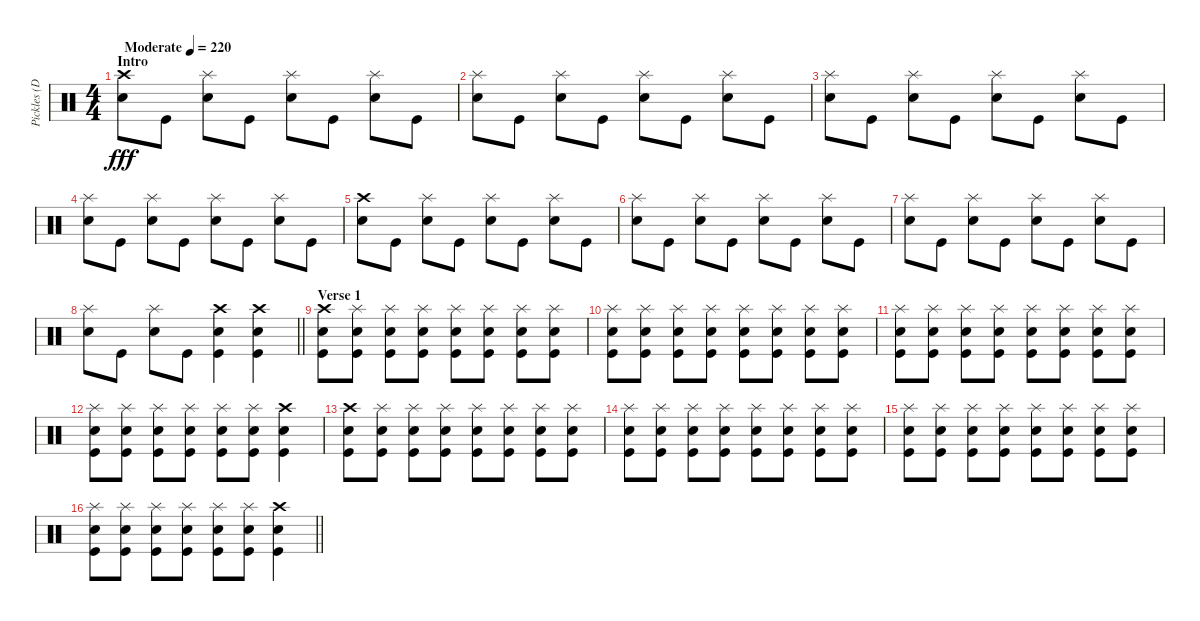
\track ("Pickles (Drums)" "Pickles (D") {instrument percussion}
\staff {score}
\articulation defaults
\ts (4 4)
\section ("" "Intro")
\tempo (220 "Moderate")
\clef neutral
\ks c
("Crash high (hit)" "Electric Snare (hit)").8{dy fff} "Kick (hit)".8 ("Splash (hit)" "Electric Snare (hit)").8 "Kick (hit)".8 ("Splash (hit)" "Electric Snare (hit)").8 "Kick (hit)".8 ("Splash (hit)" "Electric Snare (hit)").8 "Kick (hit)".8 |
("Splash (hit)" "Electric Snare (hit)").8 "Kick (hit)".8 ("Splash (hit)" "Electric Snare (hit)").8 "Kick (hit)".8 ("Splash (hit)" "Electric Snare (hit)").8 "Kick (hit)".8 ("Splash (hit)" "Electric Snare (hit)").8 "Kick (hit)".8 |
("Splash (hit)" "Electric Snare (hit)").8 "Kick (hit)".8 ("Splash (hit)" "Electric Snare (hit)").8 "Kick (hit)".8 ("Splash (hit)" "Electric Snare (hit)").8 "Kick (hit)".8 ("Splash (hit)" "Electric Snare (hit)").8 "Kick (hit)".8 |
("Splash (hit)" "Electric Snare (hit)").8 "Kick (hit)".8 ("Splash (hit)" "Electric Snare (hit)").8 "Kick (hit)".8 ("Splash (hit)" "Electric Snare (hit)").8 "Kick (hit)".8 ("Splash (hit)" "Electric Snare (hit)").8 "Kick (hit)".8 |
("Crash high (hit)" "Electric Snare (hit)").8 "Kick (hit)".8 ("Splash (hit)" "Electric Snare (hit)").8 "Kick (hit)".8 ("Splash (hit)" "Electric Snare (hit)").8 "Kick (hit)".8 ("Splash (hit)" "Electric Snare (hit)").8 "Kick (hit)".8 |
("Splash (hit)" "Electric Snare (hit)").8 "Kick (hit)".8 ("Splash (hit)" "Electric Snare (hit)").8 "Kick (hit)".8 ("Splash (hit)" "Electric Snare (hit)").8 "Kick (hit)".8 ("Splash (hit)" "Electric Snare (hit)").8 "Kick (hit)".8 |
("Splash (hit)" "Electric Snare (hit)").8 "Kick (hit)".8 ("Splash (hit)" "Electric Snare (hit)").8 "Kick (hit)".8 ("Splash (hit)" "Electric Snare (hit)").8 "Kick (hit)".8 ("Splash (hit)" "Electric Snare (hit)").8 "Kick (hit)".8 |
\barLineRight lightlight
("Splash (hit)" "Electric Snare (hit)").8 "Kick (hit)".8 ("Splash (hit)" "Electric Snare (hit)").8 "Kick (hit)".8 ("Crash high (hit)" "Electric Snare (hit)" "Kick (hit)").4 ("Crash high (hit)" "Electric Snare (hit)" "Kick (hit)").4 |
\section ("" "Verse 1")
("Crash high (hit)" "Electric Snare (hit)" "Kick (hit)").8 ("Splash (hit)" "Electric Snare (hit)" "Kick (hit)").8 ("Splash (hit)" "Electric Snare (hit)" "Kick (hit)").8 ("Splash (hit)" "Electric Snare (hit)" "Kick (hit)").8 ("Splash (hit)" "Electric Snare (hit)" "Kick (hit)").8 ("Splash (hit)" "Electric Snare (hit)" "Kick (hit)").8 ("Splash (hit)" "Electric Snare (hit)" "Kick (hit)").8 ("Splash (hit)" "Electric Snare (hit)" "Kick (hit)").8 |
("Splash (hit)" "Electric Snare (hit)" "Kick (hit)").8 ("Splash (hit)" "Electric Snare (hit)" "Kick (hit)").8 ("Splash (hit)" "Electric Snare (hit)" "Kick (hit)").8 ("Splash (hit)" "Electric Snare (hit)" "Kick (hit)").8 ("Splash (hit)" "Electric Snare (hit)" "Kick (hit)").8 ("Splash (hit)" "Electric Snare (hit)" "Kick (hit)").8 ("Splash (hit)" "Electric Snare (hit)" "Kick (hit)").8 ("Splash (hit)" "Electric Snare (hit)" "Kick (hit)").8 |
("Splash (hit)" "Electric Snare (hit)" "Kick (hit)").8 ("Splash (hit)" "Electric Snare (hit)" "Kick (hit)").8 ("Splash (hit)" "Electric Snare (hit)" "Kick (hit)").8 ("Splash (hit)" "Electric Snare (hit)" "Kick (hit)").8 ("Splash (hit)" "Electric Snare (hit)" "Kick (hit)").8 ("Splash (hit)" "Electric Snare (hit)" "Kick (hit)").8 ("Splash (hit)" "Electric Snare (hit)" "Kick (hit)").8 ("Splash (hit)" "Electric Snare (hit)" "Kick (hit)").8 |
("Splash (hit)" "Electric Snare (hit)" "Kick (hit)").8 ("Splash (hit)" "Electric Snare (hit)" "Kick (hit)").8 ("Splash (hit)" "Electric Snare (hit)" "Kick (hit)").8 ("Splash (hit)" "Electric Snare (hit)" "Kick (hit)").8 ("Splash (hit)" "Electric Snare (hit)" "Kick (hit)").8 ("Splash (hit)" "Electric Snare (hit)" "Kick (hit)").8 ("Crash high (hit)" "Electric Snare (hit)" "Kick (hit)").4 |
("Crash high (hit)" "Electric Snare (hit)" "Kick (hit)").8 ("Splash (hit)" "Electric Snare (hit)" "Kick (hit)").8 ("Splash (hit)" "Electric Snare (hit)" "Kick (hit)").8 ("Splash (hit)" "Electric Snare (hit)" "Kick (hit)").8 ("Splash (hit)" "Electric Snare (hit)" "Kick (hit)").8 ("Splash (hit)" "Electric Snare (hit)" "Kick (hit)").8 ("Splash (hit)" "Electric Snare (hit)" "Kick (hit)").8 ("Splash (hit)" "Electric Snare (hit)" "Kick (hit)").8 |
("Splash (hit)" "Electric Snare (hit)" "Kick (hit)").8 ("Splash (hit)" "Electric Snare (hit)" "Kick (hit)").8 ("Splash (hit)" "Electric Snare (hit)" "Kick (hit)").8 ("Splash (hit)" "Electric Snare (hit)" "Kick (hit)").8 ("Splash (hit)" "Electric Snare (hit)" "Kick (hit)").8 ("Splash (hit)" "Electric Snare (hit)" "Kick (hit)").8 ("Splash (hit)" "Electric Snare (hit)" "Kick (hit)").8 ("Splash (hit)" "Electric Snare (hit)" "Kick (hit)").8 |
("Splash (hit)" "Electric Snare (hit)" "Kick (hit)").8 ("Splash (hit)" "Electric Snare (hit)" "Kick (hit)").8 ("Splash (hit)" "Electric Snare (hit)" "Kick (hit)").8 ("Splash (hit)" "Electric Snare (hit)" "Kick (hit)").8 ("Splash (hit)" "Electric Snare (hit)" "Kick (hit)").8 ("Splash (hit)" "Electric Snare (hit)" "Kick (hit)").8 ("Splash (hit)" "Electric Snare (hit)" "Kick (hit)").8 ("Splash (hit)" "Electric Snare (hit)" "Kick (hit)").8 |
\barLineRight lightlight
("Splash (hit)" "Electric Snare (hit)" "Kick (hit)").8 ("Splash (hit)" "Electric Snare (hit)" "Kick (hit)").8 ("Splash (hit)" "Electric Snare (hit)" "Kick (hit)").8 ("Splash (hit)" "Electric Snare (hit)" "Kick (hit)").8 ("Splash (hit)" "Electric Snare (hit)" "Kick (hit)").8 ("Splash (hit)" "Electric Snare (hit)" "Kick (hit)").8 ("Crash high (hit)" "Electric Snare (hit)" "Kick (hit)").4
